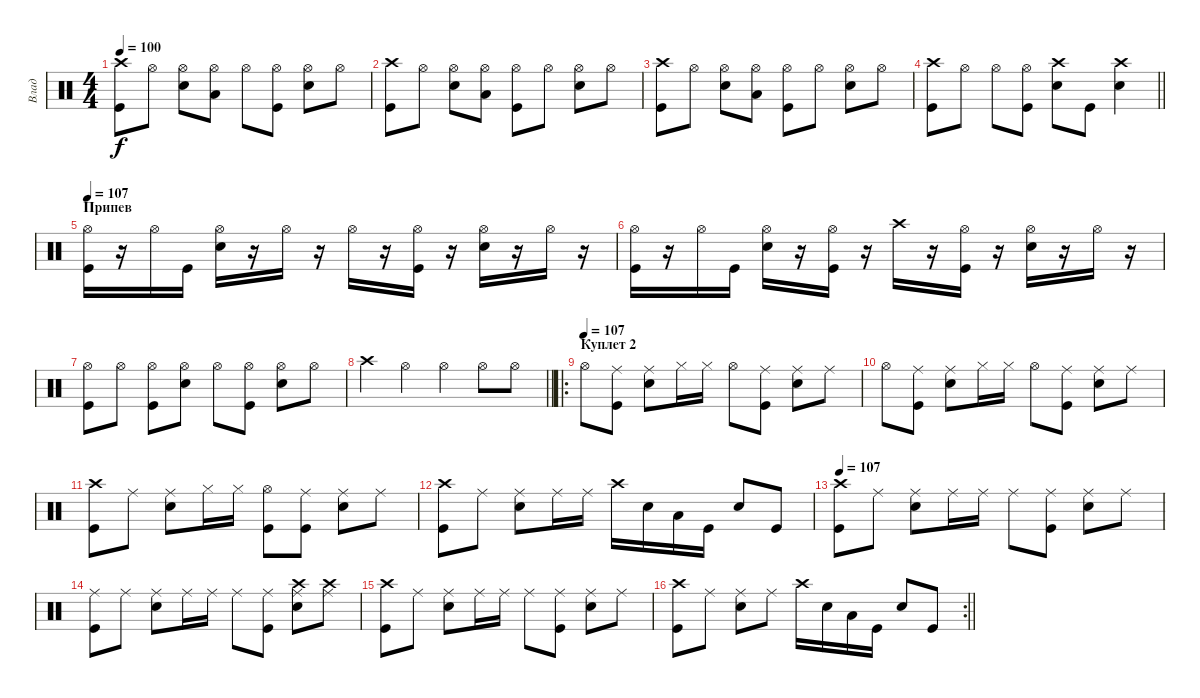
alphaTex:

\track ("Влад" "Влад") {instrument percussion}
\staff {score}
\articulation defaults
\ts (4 4)
\tempo 100
\clef neutral
\ks c
("Crash high (hit)" "Kick (hit)").8{dy f} "Hi-Hat (open)".8 ("Hi-Hat (open)" "Snare (hit) 2").8 ("Hi-Hat (open)" "Low Tom (hit)").8 "Hi-Hat (open)".8 ("Hi-Hat (open)" "Kick (hit)").8 ("Hi-Hat (open)" "Snare (hit) 2").8 "Hi-Hat (open)".8 |
("Crash high (hit)" "Kick (hit)").8 "Hi-Hat (open)".8 ("Hi-Hat (open)" "Snare (hit) 2").8 ("Hi-Hat (open)" "Low Floor Tom (hit)").8 ("Hi-Hat (open)" "Kick (hit)").8 "Hi-Hat (open)".8 ("Hi-Hat (open)" "Snare (hit) 2").8 "Hi-Hat (open)".8 |
("Crash high (hit)" "Kick (hit)").8 "Hi-Hat (open)".8 ("Hi-Hat (open)" "Snare (hit) 2").8 ("Hi-Hat (open)" "Low Tom (hit)").8 ("Hi-Hat (open)" "Kick (hit)").8 "Hi-Hat (open)".8 ("Hi-Hat (open)" "Snare (hit) 2").8 "Hi-Hat (open)".8 |
\barLineRight lightlight
("Crash high (hit)" "Kick (hit)").8 "Hi-Hat (open)".8 "Hi-Hat (open)".8 ("Hi-Hat (open)" "Kick (hit)").8 ("Crash high (hit)" "Snare (hit) 2").8 "Kick (hit)".8 ("Crash high (hit)" "Snare (hit) 2").4 |
\section ("" "Припев")
\tempo 107
("Hi-Hat (open)" "Kick (hit)").16 r.16 "Hi-Hat (open)".16 "Kick (hit)".16 ("Hi-Hat (open)" "Snare (hit) 2").16 r.16 "Hi-Hat (open)".16 r.16 "Hi-Hat (open)".16 r.16 ("Hi-Hat (open)" "Kick (hit)").16 r.16 ("Hi-Hat (open)" "Snare (hit) 2").16 r.16 "Hi-Hat (open)".16 r.16 |
("Hi-Hat (open)" "Kick (hit)").16 r.16 "Hi-Hat (open)".16 "Kick (hit)".16 ("Hi-Hat (open)" "Snare (hit) 2").16 r.16 ("Hi-Hat (open)" "Kick (hit)").16 r.16 "Crash high (hit)".16 r.16 ("Hi-Hat (open)" "Kick (hit)").16 r.16 ("Hi-Hat (open)" "Snare (hit) 2").16 r.16 "Hi-Hat (open)".16 r.16 |
("Hi-Hat (open)" "Kick (hit)").8 "Hi-Hat (open)".8 ("Hi-Hat (open)" "Kick (hit)").8 ("Hi-Hat (open)" "Snare (hit) 2").8 "Hi-Hat (open)".8 ("Hi-Hat (open)" "Kick (hit)").8 ("Hi-Hat (open)" "Snare (hit) 2").8 "Hi-Hat (open)".8 |
\barLineRight lightlight "Crash high (hit)".4 "Hi-Hat (open)".4 "Hi-Hat (open)".4 "Hi-Hat (open)".8 "Hi-Hat (open)".8
|
\ro
\section ("" "Куплет 2")
\tempo (107)
"Hi-Hat (open)".8 ("Ride (middle)" "Kick (hit)").8 ("Ride (middle)" "Snare (hit) 2").8 "Hi-Hat (closed)".16 "Hi-Hat (closed)".16 "Hi-Hat (open)".8 ("Ride (middle)" "Kick (hit)").8 ("Ride (middle)" "Snare (hit) 2").8 "Ride (middle)".8 |
"Hi-Hat (open)".8 ("Ride (middle)" "Kick (hit)").8 ("Ride (middle)" "Snare (hit) 2").8 "Hi-Hat (closed)".16 "Hi-Hat (closed)".16 "Hi-Hat (open)".8 ("Ride (middle)" "Kick (hit)").8 ("Ride (middle)" "Snare (hit) 2").8 "Ride (middle)".8 |
("Crash high (hit)" "Kick (hit)").8 "Ride (middle)".8 ("Ride (middle)" "Snare (hit) 2").8 "Hi-Hat (closed)".16 "Hi-Hat (closed)".16 ("Hi-Hat (open)" "Kick (hit)").8 ("Ride (middle)" "Kick (hit)").8 ("Ride (middle)" "Snare (hit) 2").8 "Ride (middle)".8 |
("Crash high (hit)" "Kick (hit)").8 "Ride (middle)".8 ("Ride (middle)" "Snare (hit) 2").8 "Ride (middle)".16 "Ride (middle)".16 "Crash high (hit)".16 "Snare (hit) 2".16 "Low Tom (hit)".16 "Kick (hit)".16 "Snare (hit) 2".8 "Kick (hit)".8 |
\tempo 107
("Crash high (hit)" "Kick (hit)").8 "Ride (middle)".8 ("Ride (middle)" "Snare (hit) 2").8 "Ride (middle)".16 "Ride (middle)".16 "Ride (middle)".8 ("Ride (middle)" "Kick (hit)").8 ("Ride (middle)" "Snare (hit) 2").8 "Ride (middle)".8 |
("Ride (middle)" "Kick (hit)").8 "Ride (middle)".8 ("Ride (middle)" "Snare (hit) 2").8 "Ride (middle)".16 "Ride (middle)".16 "Ride (middle)".8 ("Ride (middle)" "Kick (hit)").8 ("Ride (middle)" "Crash high (hit)" "Snare (hit) 2").8 ("Ride (middle)" "Crash high (hit)").8 |
("Crash high (hit)" "Kick (hit)").8 "Ride (middle)".8 ("Ride (middle)" "Snare (hit) 2").8 "Ride (middle)".16 "Ride (middle)".16 "Ride (middle)".8 ("Ride (middle)" "Kick (hit)").8 ("Ride (middle)" "Snare (hit) 2").8 "Ride (middle)".8 |
\rc 2
\barLineRight lightlight
("Crash high (hit)" "Kick (hit)").8 "Ride (middle)".8 ("Ride (middle)" "Snare (hit) 2").8 "Ride (middle)".8 "Crash high (hit)".16 "Snare (hit) 2".16 "Low Floor Tom (hit)".16 "Kick (hit)".16 "Snare (hit) 2".8 "Kick (hit)".8
